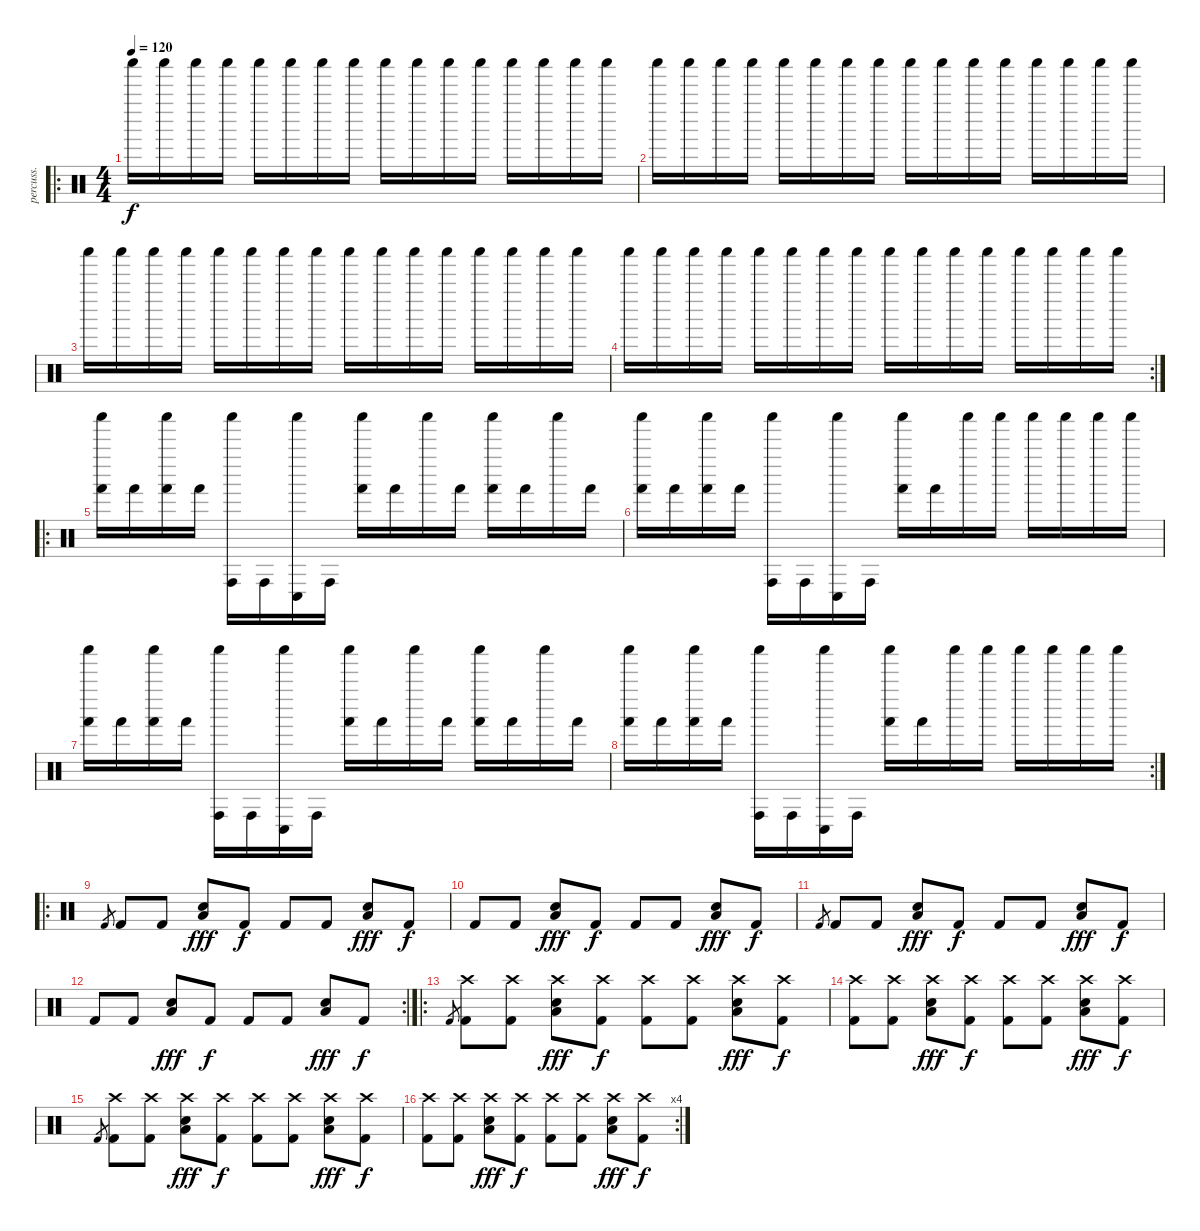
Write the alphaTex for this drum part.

\track ("percuss." "percuss.") {instrument percussion}
\staff {score}
\articulation defaults
\ro
\ts (4 4)
\tempo 120
\clef neutral
\ks c "Shaker (hit)".16{dy f} "Shaker (hit)".16 "Shaker (hit)".16 "Shaker (hit)".16 "Shaker (hit)".16 "Shaker (hit)".16 "Shaker (hit)".16 "Shaker (hit)".16 "Shaker (hit)".16 "Shaker (hit)".16 "Shaker (hit)".16 "Shaker (hit)".16 "Shaker (hit)".16 "Shaker (hit)".16 "Shaker (hit)".16 "Shaker (hit)".16
|
"Shaker (hit)".16 "Shaker (hit)".16 "Shaker (hit)".16 "Shaker (hit)".16 "Shaker (hit)".16 "Shaker (hit)".16 "Shaker (hit)".16 "Shaker (hit)".16 "Shaker (hit)".16 "Shaker (hit)".16 "Shaker (hit)".16 "Shaker (hit)".16 "Shaker (hit)".16 "Shaker (hit)".16 "Shaker (hit)".16 "Shaker (hit)".16 |
"Shaker (hit)".16 "Shaker (hit)".16 "Shaker (hit)".16 "Shaker (hit)".16 "Shaker (hit)".16 "Shaker (hit)".16 "Shaker (hit)".16 "Shaker (hit)".16 "Shaker (hit)".16 "Shaker (hit)".16 "Shaker (hit)".16 "Shaker (hit)".16 "Shaker (hit)".16 "Shaker (hit)".16 "Shaker (hit)".16 "Shaker (hit)".16 |
\rc 2 "Shaker (hit)".16 "Shaker (hit)".16 "Shaker (hit)".16 "Shaker (hit)".16 "Shaker (hit)".16 "Shaker (hit)".16 "Shaker (hit)".16 "Shaker (hit)".16 "Shaker (hit)".16 "Shaker (hit)".16 "Shaker (hit)".16 "Shaker (hit)".16 "Shaker (hit)".16 "Shaker (hit)".16 "Shaker (hit)".16 "Shaker (hit)".16
|
\ro
("Shaker (hit)" "Hand (hit)").16 "Hand (hit)".16 ("Shaker (hit)" "Hand (hit)").16 "Hand (hit)".16 ("Shaker (hit)" "Conga high (hit)").16 "Conga high (hit)".16 ("Shaker (hit)" "Conga low (hit)").16 "Conga high (hit)".16 ("Shaker (hit)" "Hand (hit)").16 "Hand (hit)".16 "Shaker (hit)".16 "Hand (hit)".16 ("Shaker (hit)" "Hand (hit)").16 "Hand (hit)".16 "Shaker (hit)".16 "Hand (hit)".16 |
("Shaker (hit)" "Hand (hit)").16 "Hand (hit)".16 ("Shaker (hit)" "Hand (hit)").16 "Hand (hit)".16 ("Shaker (hit)" "Conga high (hit)").16 "Conga high (hit)".16 ("Shaker (hit)" "Conga low (hit)").16 "Conga high (hit)".16 ("Shaker (hit)" "Hand (hit)").16 "Hand (hit)".16 "Shaker (hit)".16 "Shaker (hit)".16 "Shaker (hit)".16 "Shaker (hit)".16 "Shaker (hit)".16 "Shaker (hit)".16 |
("Shaker (hit)" "Hand (hit)").16 "Hand (hit)".16 ("Shaker (hit)" "Hand (hit)").16 "Hand (hit)".16 ("Shaker (hit)" "Conga high (hit)").16 "Conga high (hit)".16 ("Shaker (hit)" "Conga low (hit)").16 "Conga high (hit)".16 ("Shaker (hit)" "Hand (hit)").16 "Hand (hit)".16 "Shaker (hit)".16 "Hand (hit)".16 ("Shaker (hit)" "Hand (hit)").16 "Hand (hit)".16 "Shaker (hit)".16 "Hand (hit)".16 |
\rc 2
("Shaker (hit)" "Hand (hit)").16 "Hand (hit)".16 ("Shaker (hit)" "Hand (hit)").16 "Hand (hit)".16 ("Shaker (hit)" "Conga high (hit)").16 "Conga high (hit)".16 ("Shaker (hit)" "Conga low (hit)").16 "Conga high (hit)".16 ("Shaker (hit)" "Hand (hit)").16 "Hand (hit)".16 "Shaker (hit)".16 "Shaker (hit)".16 "Shaker (hit)".16 "Shaker (hit)".16 "Shaker (hit)".16 "Shaker (hit)".16 |
\ro "Kick (hit) 2".8{gr} "Kick (hit) 2".8 "Kick (hit) 2".8
("Low Floor Tom (hit)" "Electric Snare (hit)").8{dy fff} "Kick (hit) 2".8{dy f} "Kick (hit) 2".8 "Kick (hit) 2".8 ("Low Floor Tom (hit)" "Electric Snare (hit)").8{dy fff} "Kick (hit) 2".8{dy f} |
"Kick (hit) 2".8 "Kick (hit) 2".8 ("Low Floor Tom (hit)" "Electric Snare (hit)").8{dy fff} "Kick (hit) 2".8{dy f} "Kick (hit) 2".8 "Kick (hit) 2".8 ("Low Floor Tom (hit)" "Electric Snare (hit)").8{dy fff} "Kick (hit) 2".8{dy f} |
"Kick (hit) 2".8{gr} "Kick (hit) 2".8 "Kick (hit) 2".8 ("Low Floor Tom (hit)" "Electric Snare (hit)").8{dy fff} "Kick (hit) 2".8{dy f} "Kick (hit) 2".8 "Kick (hit) 2".8 ("Low Floor Tom (hit)" "Electric Snare (hit)").8{dy fff} "Kick (hit) 2".8{dy f} |
\rc 2 "Kick (hit) 2".8 "Kick (hit) 2".8
("Low Floor Tom (hit)" "Electric Snare (hit)").8{dy fff} "Kick (hit) 2".8{dy f} "Kick (hit) 2".8 "Kick (hit) 2".8 ("Low Floor Tom (hit)" "Electric Snare (hit)").8{dy fff} "Kick (hit) 2".8{dy f} |
\ro "Kick (hit) 2".8{gr}
("Crash high (hit)" "Kick (hit) 2").8 ("Crash high (hit)" "Kick (hit) 2").8 ("Crash high (hit)" "Low Floor Tom (hit)" "Electric Snare (hit)").8{dy fff} ("Crash high (hit)" "Kick (hit) 2").8{dy f} ("Crash high (hit)" "Kick (hit) 2").8 ("Crash high (hit)" "Kick (hit) 2").8 ("Crash high (hit)" "Low Floor Tom (hit)" "Electric Snare (hit)").8{dy fff} ("Crash high (hit)" "Kick (hit) 2").8{dy f} |
("Crash high (hit)" "Kick (hit) 2").8 ("Crash high (hit)" "Kick (hit) 2").8 ("Crash high (hit)" "Low Floor Tom (hit)" "Electric Snare (hit)").8{dy fff} ("Crash high (hit)" "Kick (hit) 2").8{dy f} ("Crash high (hit)" "Kick (hit) 2").8 ("Crash high (hit)" "Kick (hit) 2").8 ("Crash high (hit)" "Low Floor Tom (hit)" "Electric Snare (hit)").8{dy fff} ("Crash high (hit)" "Kick (hit) 2").8{dy f} |
"Kick (hit) 2".8{gr} ("Crash high (hit)" "Kick (hit) 2").8 ("Crash high (hit)" "Kick (hit) 2").8 ("Crash high (hit)" "Low Floor Tom (hit)" "Electric Snare (hit)").8{dy fff} ("Crash high (hit)" "Kick (hit) 2").8{dy f} ("Crash high (hit)" "Kick (hit) 2").8 ("Crash high (hit)" "Kick (hit) 2").8 ("Crash high (hit)" "Low Floor Tom (hit)" "Electric Snare (hit)").8{dy fff} ("Crash high (hit)" "Kick (hit) 2").8{dy f} |
\rc 4
("Crash high (hit)" "Kick (hit) 2").8 ("Crash high (hit)" "Kick (hit) 2").8 ("Crash high (hit)" "Low Floor Tom (hit)" "Electric Snare (hit)").8{dy fff} ("Crash high (hit)" "Kick (hit) 2").8{dy f} ("Crash high (hit)" "Kick (hit) 2").8 ("Crash high (hit)" "Kick (hit) 2").8 ("Crash high (hit)" "Low Floor Tom (hit)" "Electric Snare (hit)").8{dy fff} ("Crash high (hit)" "Kick (hit) 2").8{dy f}
